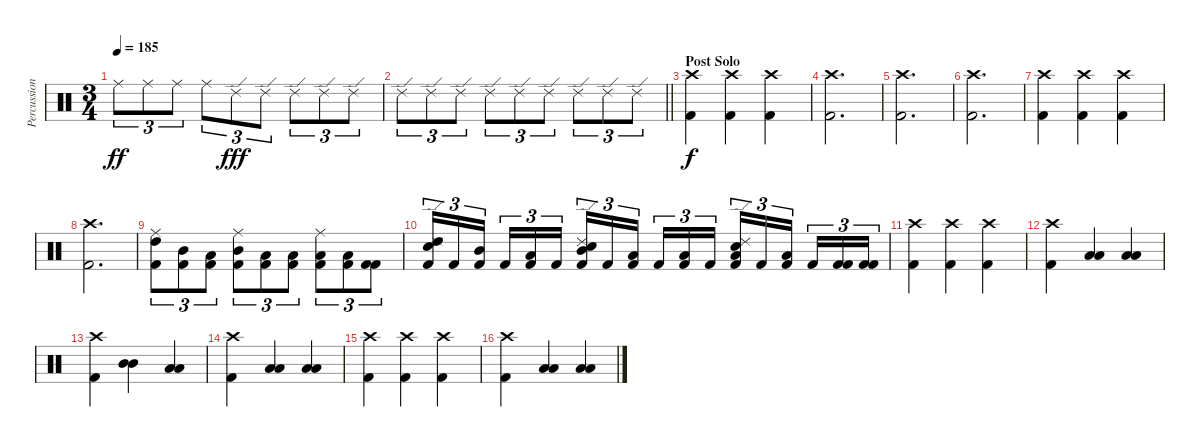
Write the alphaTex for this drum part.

\track ("Percussion" "Percussion") {instrument percussion}
\staff {score}
\articulation defaults
\ts (3 4)
\tempo 185
\clef neutral
\ks c "Ride (middle)".8{tu (3 2) dy ff} "Ride (middle)".8{tu (3 2)} "Ride (middle)".8{tu (3 2)} "Ride (middle)".8{tu (3 2)} "Ride (edge) 2".8{tu (3 2) dy fff} "Ride (edge) 2".8{tu (3 2)} "Ride (edge) 2".8{tu (3 2)} "Ride (edge) 2".8{tu (3 2)} "Ride (edge) 2".8{tu (3 2)}
|
\barLineRight lightlight "Ride (edge) 2".8{tu (3 2)} "Ride (edge) 2".8{tu (3 2)} "Ride (edge) 2".8{tu (3 2)} "Ride (edge) 2".8{tu (3 2)} "Ride (edge) 2".8{tu (3 2)} "Ride (edge) 2".8{tu (3 2)} "Ride (edge) 2".8{tu (3 2)} "Ride (edge) 2".8{tu (3 2)} "Ride (edge) 2".8{tu (3 2)}
|
\section ("" "Post Solo")
("Crash high (hit)" "Kick (hit) 2").4{dy f} ("Crash high (hit)" "Kick (hit) 2").4 ("Crash high (hit)" "Kick (hit) 2").4 |
("Crash high (hit)" "Kick (hit) 2").2{d} |
("Crash high (hit)" "Kick (hit) 2").2{d} |
("Crash high (hit)" "Kick (hit) 2").2{d} |
("Crash high (hit)" "Kick (hit) 2").4 ("Crash high (hit)" "Kick (hit) 2").4 ("Crash high (hit)" "Kick (hit) 2").4 |
("Crash high (hit)" "Kick (hit) 2").2{d} |
("Ride (middle)" "High Tom (hit)" "Kick (hit) 2").8{tu (3 2)} ("Mid Tom (hit)" "Kick (hit) 2").8{tu (3 2)} ("Low Tom (hit)" "Kick (hit) 2").8{tu (3 2)} ("Ride (middle)" "Mid Tom (hit)" "Kick (hit) 2").8{tu (3 2)} ("Low Tom (hit)" "Kick (hit) 2").8{tu (3 2)} ("Low Floor Tom (hit)" "Kick (hit) 2").8{tu (3 2)} ("Ride (middle)" "Low Tom (hit)" "Kick (hit) 2").8{tu (3 2)} ("Low Floor Tom (hit)" "Kick (hit) 2").8{tu (3 2)} ("Kick (hit) 2" "Kick (hit) 2").8{tu (3 2)} |
("Ride (edge) 2" "Electric Snare (hit)" "High Tom (hit)" "Kick (hit) 2").16{tu (3 2)} "Kick (hit) 2".16{tu (3 2)} ("Mid Tom (hit)" "Kick (hit) 2").16{tu (3 2) beam splitsecondary} "Kick (hit) 2".16{tu (3 2)} ("Low Tom (hit)" "Kick (hit) 2").16{tu (3 2)} "Kick (hit) 2".16{tu (3 2)} ("Ride (edge) 2" "Electric Snare (hit)" "Mid Tom (hit)" "Kick (hit) 2").16{tu (3 2)} "Kick (hit) 2".16{tu (3 2)} ("Low Tom (hit)" "Kick (hit) 2").16{tu (3 2) beam splitsecondary} "Kick (hit) 2".16{tu (3 2)} ("Low Floor Tom (hit)" "Kick (hit) 2").16{tu (3 2)} "Kick (hit) 2".16{tu (3 2)} ("Ride (edge) 2" "Electric Snare (hit)" "Low Tom (hit)" "Kick (hit) 2").16{tu (3 2)} "Kick (hit) 2".16{tu (3 2)} ("Low Floor Tom (hit)" "Kick (hit) 2").16{tu (3 2) beam splitsecondary} "Kick (hit) 2".16{tu (3 2)} ("Kick (hit) 2" "Kick (hit) 2").16{tu (3 2)} ("Kick (hit) 2" "Kick (hit) 2").16{tu (3 2)} |
("Crash high (hit)" "Kick (hit) 2").4 ("Crash high (hit)" "Kick (hit) 2").4 ("Crash high (hit)" "Kick (hit) 2").4 |
("Crash high (hit)" "Kick (hit) 2").4 ("Low Tom (hit)" "Low Tom (hit)").4 ("Low Floor Tom (hit)" "Low Floor Tom (hit)").4 |
("Crash high (hit)" "Kick (hit) 2").4 ("Mid Tom (hit)" "Mid Tom (hit)").4 ("Low Tom (hit)" "Low Tom (hit)").4 |
("Crash high (hit)" "Kick (hit) 2").4 ("Low Floor Tom (hit)" "Low Floor Tom (hit)").4 ("Low Tom (hit)" "Low Tom (hit)").4 |
("Crash high (hit)" "Kick (hit) 2").4 ("Crash high (hit)" "Kick (hit) 2").4 ("Crash high (hit)" "Kick (hit) 2").4 |
("Crash high (hit)" "Kick (hit) 2").4 ("Low Tom (hit)" "Low Tom (hit)").4 ("Low Floor Tom (hit)" "Low Floor Tom (hit)").4
